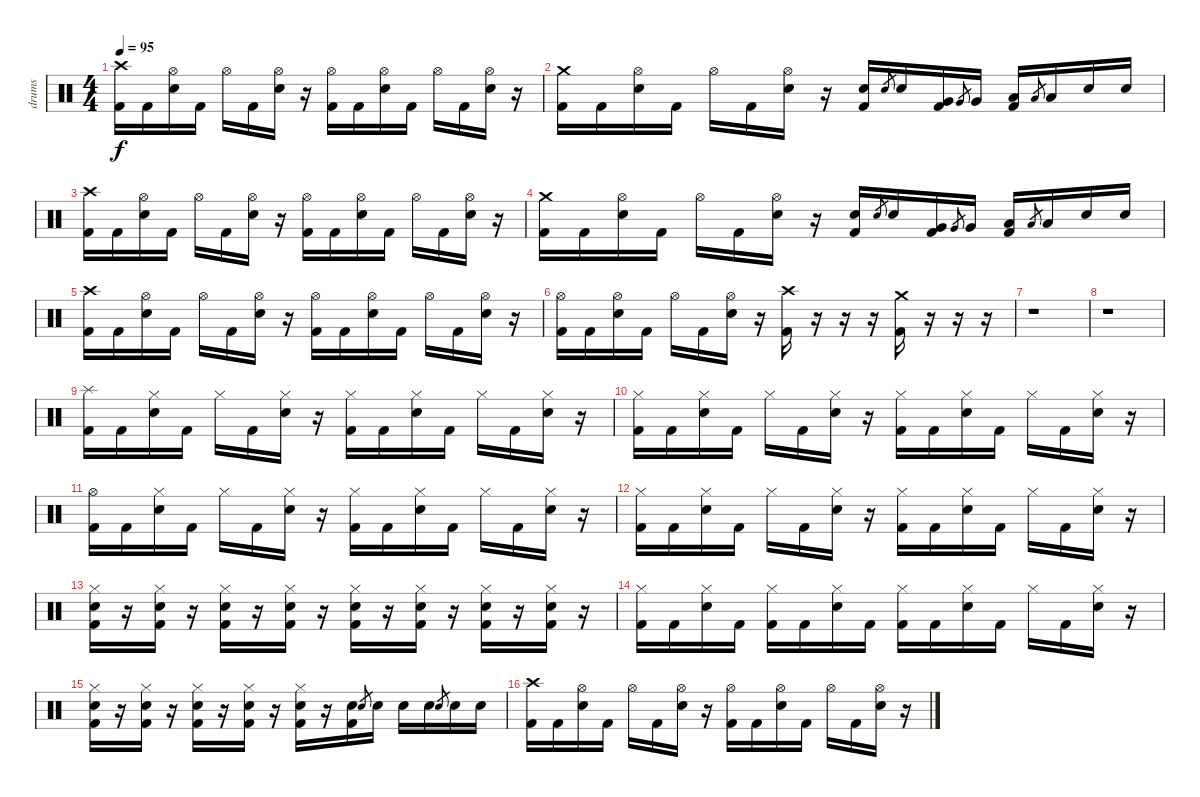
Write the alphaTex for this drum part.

\track ("drums" "drums") {instrument percussion}
\staff {score}
\articulation defaults
\ts (4 4)
\tempo 95
\clef neutral
\ks c
("Kick (hit) 2" "Crash high (hit)").16{dy f} "Kick (hit) 2".16 ("Electric Snare (hit)" "Hi-Hat (open)").16 "Kick (hit) 2".16 "Hi-Hat (open)".16 "Kick (hit) 2".16 ("Electric Snare (hit)" "Hi-Hat (open)").16 r.16 ("Kick (hit) 2" "Hi-Hat (open)").16 "Kick (hit) 2".16 ("Electric Snare (hit)" "Hi-Hat (open)").16 "Kick (hit) 2".16 "Hi-Hat (open)".16 "Kick (hit) 2".16 ("Electric Snare (hit)" "Hi-Hat (open)").16 r.16 |
("Kick (hit) 2" "Crash medium (hit)").16 "Kick (hit) 2".16 ("Electric Snare (hit)" "Hi-Hat (open)").16 "Kick (hit) 2".16 "Hi-Hat (open)".16 "Kick (hit) 2".16 ("Electric Snare (hit)" "Hi-Hat (open)").16 r.16 ("Kick (hit) 2" "Electric Snare (hit)").16 "Electric Snare (hit)".8{gr} "Electric Snare (hit)".16 ("Kick (hit) 2" "Very Low Tom (hit)").16 "Very Low Tom (hit)".8{gr} "Very Low Tom (hit)".16 ("Kick (hit) 2" "Low Tom (hit)").16 "Low Tom (hit)".8{gr} "Low Tom (hit)".16 "Electric Snare (hit)".16 "Electric Snare (hit)".16 |
("Kick (hit) 2" "Crash high (hit)").16 "Kick (hit) 2".16 ("Electric Snare (hit)" "Hi-Hat (open)").16 "Kick (hit) 2".16 "Hi-Hat (open)".16 "Kick (hit) 2".16 ("Electric Snare (hit)" "Hi-Hat (open)").16 r.16 ("Kick (hit) 2" "Hi-Hat (open)").16 "Kick (hit) 2".16 ("Electric Snare (hit)" "Hi-Hat (open)").16 "Kick (hit) 2".16 "Hi-Hat (open)".16 "Kick (hit) 2".16 ("Electric Snare (hit)" "Hi-Hat (open)").16 r.16 |
("Kick (hit) 2" "Crash medium (hit)").16 "Kick (hit) 2".16 ("Electric Snare (hit)" "Hi-Hat (open)").16 "Kick (hit) 2".16 "Hi-Hat (open)".16 "Kick (hit) 2".16 ("Electric Snare (hit)" "Hi-Hat (open)").16 r.16 ("Kick (hit) 2" "Electric Snare (hit)").16 "Electric Snare (hit)".8{gr} "Electric Snare (hit)".16 ("Kick (hit) 2" "Very Low Tom (hit)").16 "Very Low Tom (hit)".8{gr} "Very Low Tom (hit)".16 ("Kick (hit) 2" "Low Tom (hit)").16 "Low Tom (hit)".8{gr} "Low Tom (hit)".16 "Electric Snare (hit)".16 "Electric Snare (hit)".16 |
("Kick (hit) 2" "Crash high (hit)").16 "Kick (hit) 2".16 ("Electric Snare (hit)" "Hi-Hat (open)").16 "Kick (hit) 2".16 "Hi-Hat (open)".16 "Kick (hit) 2".16 ("Electric Snare (hit)" "Hi-Hat (open)").16 r.16 ("Kick (hit) 2" "Hi-Hat (open)").16 "Kick (hit) 2".16 ("Electric Snare (hit)" "Hi-Hat (open)").16 "Kick (hit) 2".16 "Hi-Hat (open)".16 "Kick (hit) 2".16 ("Electric Snare (hit)" "Hi-Hat (open)").16 r.16 |
("Kick (hit) 2" "Hi-Hat (open)").16 "Kick (hit) 2".16 ("Electric Snare (hit)" "Hi-Hat (open)").16 "Kick (hit) 2".16 "Hi-Hat (open)".16 "Kick (hit) 2".16 ("Electric Snare (hit)" "Hi-Hat (open)").16 r.16 ("Kick (hit) 2" "Crash high (hit)").16 r.16 r.16 r.16 ("Kick (hit) 2" "Crash medium (hit)").16 r.16 r.16 r.16 |
r.1 |
r.1 |
("Kick (hit) 2" "Splash (hit)").16 "Kick (hit) 2".16 ("Electric Snare (hit)" "Hi-Hat (closed)").16 "Kick (hit) 2".16 "Hi-Hat (closed)".16 "Kick (hit) 2".16 ("Electric Snare (hit)" "Hi-Hat (closed)").16 r.16 ("Kick (hit) 2" "Hi-Hat (closed)").16 "Kick (hit) 2".16 ("Electric Snare (hit)" "Hi-Hat (closed)").16 "Kick (hit) 2".16 "Hi-Hat (closed)".16 "Kick (hit) 2".16 ("Electric Snare (hit)" "Hi-Hat (closed)").16 r.16 |
("Kick (hit) 2" "Hi-Hat (closed)").16 "Kick (hit) 2".16 ("Electric Snare (hit)" "Hi-Hat (closed)").16 "Kick (hit) 2".16 "Hi-Hat (closed)".16 "Kick (hit) 2".16 ("Electric Snare (hit)" "Hi-Hat (closed)").16 r.16 ("Kick (hit) 2" "Hi-Hat (closed)").16 "Kick (hit) 2".16 ("Electric Snare (hit)" "Hi-Hat (closed)").16 "Kick (hit) 2".16 "Hi-Hat (closed)".16 "Kick (hit) 2".16 ("Electric Snare (hit)" "Hi-Hat (closed)").16 r.16 |
("Kick (hit) 2" "Hi-Hat (open)").16 "Kick (hit) 2".16 ("Electric Snare (hit)" "Hi-Hat (closed)").16 "Kick (hit) 2".16 "Hi-Hat (closed)".16 "Kick (hit) 2".16 ("Electric Snare (hit)" "Hi-Hat (closed)").16 r.16 ("Kick (hit) 2" "Hi-Hat (closed)").16 "Kick (hit) 2".16 ("Electric Snare (hit)" "Hi-Hat (closed)").16 "Kick (hit) 2".16 "Hi-Hat (closed)".16 "Kick (hit) 2".16 ("Electric Snare (hit)" "Hi-Hat (closed)").16 r.16 |
("Kick (hit) 2" "Hi-Hat (closed)").16 "Kick (hit) 2".16 ("Electric Snare (hit)" "Hi-Hat (closed)").16 "Kick (hit) 2".16 "Hi-Hat (closed)".16 "Kick (hit) 2".16 ("Electric Snare (hit)" "Hi-Hat (closed)").16 r.16 ("Kick (hit) 2" "Hi-Hat (closed)").16 "Kick (hit) 2".16 ("Electric Snare (hit)" "Hi-Hat (closed)").16 "Kick (hit) 2".16 "Hi-Hat (closed)".16 "Kick (hit) 2".16 ("Electric Snare (hit)" "Hi-Hat (closed)").16 r.16 |
("Kick (hit) 2" "Electric Snare (hit)" "Hi-Hat (closed)").16 r.16 ("Kick (hit) 2" "Electric Snare (hit)" "Hi-Hat (closed)").16 r.16 ("Kick (hit) 2" "Electric Snare (hit)" "Hi-Hat (closed)").16 r.16 ("Kick (hit) 2" "Electric Snare (hit)" "Hi-Hat (closed)").16 r.16 ("Kick (hit) 2" "Electric Snare (hit)" "Hi-Hat (closed)").16 r.16 ("Kick (hit) 2" "Electric Snare (hit)" "Hi-Hat (closed)").16 r.16 ("Kick (hit) 2" "Electric Snare (hit)" "Hi-Hat (closed)").16 r.16 ("Kick (hit) 2" "Electric Snare (hit)" "Hi-Hat (closed)").16 r.16 |
("Kick (hit) 2" "Hi-Hat (closed)").16 "Kick (hit) 2".16 ("Electric Snare (hit)" "Hi-Hat (closed)").16 "Kick (hit) 2".16 ("Kick (hit) 2" "Hi-Hat (closed)").16 "Kick (hit) 2".16 ("Electric Snare (hit)" "Hi-Hat (closed)").16 "Kick (hit) 2".16 ("Kick (hit) 2" "Hi-Hat (closed)").16 "Kick (hit) 2".16 ("Electric Snare (hit)" "Hi-Hat (closed)").16 "Kick (hit) 2".16 "Hi-Hat (closed)".16 "Kick (hit) 2".16 ("Electric Snare (hit)" "Hi-Hat (closed)").16 r.16 |
("Kick (hit) 2" "Electric Snare (hit)" "Hi-Hat (closed)").16 r.16 ("Kick (hit) 2" "Electric Snare (hit)" "Hi-Hat (closed)").16 r.16 ("Kick (hit) 2" "Electric Snare (hit)" "Hi-Hat (closed)").16 r.16 ("Kick (hit) 2" "Electric Snare (hit)" "Hi-Hat (closed)").16 r.16 ("Kick (hit) 2" "Electric Snare (hit)" "Hi-Hat (closed)").16 r.16 ("Kick (hit) 2" "Electric Snare (hit)").16 "Electric Snare (hit)".8{gr} "Electric Snare (hit)".16 "Electric Snare (hit)".16 "Electric Snare (hit)".16 "Electric Snare (hit)".8{gr} "Electric Snare (hit)".16 "Electric Snare (hit)".16 |
("Kick (hit) 2" "Crash high (hit)").16 "Kick (hit) 2".16 ("Electric Snare (hit)" "Hi-Hat (open)").16 "Kick (hit) 2".16 "Hi-Hat (open)".16 "Kick (hit) 2".16 ("Electric Snare (hit)" "Hi-Hat (open)").16 r.16 ("Kick (hit) 2" "Hi-Hat (open)").16 "Kick (hit) 2".16 ("Electric Snare (hit)" "Hi-Hat (open)").16 "Kick (hit) 2".16 "Hi-Hat (open)".16 "Kick (hit) 2".16 ("Electric Snare (hit)" "Hi-Hat (open)").16 r.16
